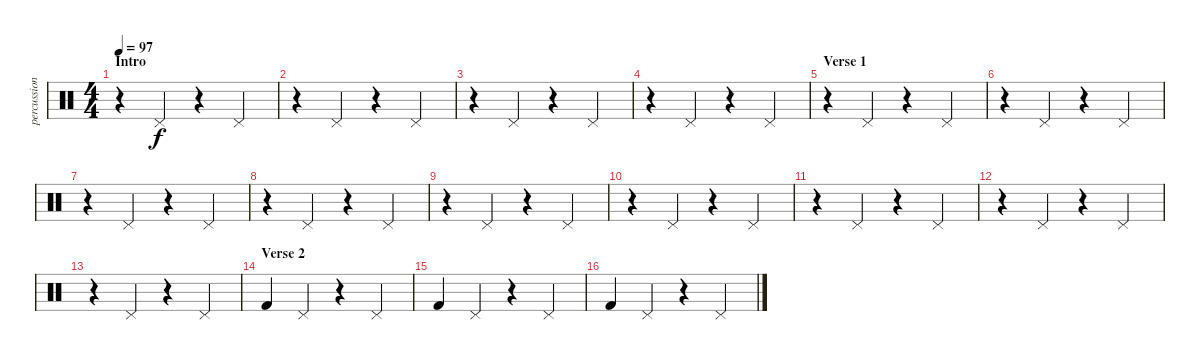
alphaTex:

\track ("percussion - vom" "percussion") {instrument percussion}
\staff {score}
\articulation defaults
\ts (4 4)
\section ("" "Intro")
\tempo 97
\clef neutral
\ks c
r.4{dy f} "Pedal Hi-Hat (hit)".4 r.4 "Pedal Hi-Hat (hit)".4 |
r.4 "Pedal Hi-Hat (hit)".4 r.4 "Pedal Hi-Hat (hit)".4 |
r.4 "Pedal Hi-Hat (hit)".4 r.4 "Pedal Hi-Hat (hit)".4 |
r.4 "Pedal Hi-Hat (hit)".4 r.4 "Pedal Hi-Hat (hit)".4 |
\section ("" "Verse 1")
r.4 "Pedal Hi-Hat (hit)".4 r.4 "Pedal Hi-Hat (hit)".4 |
r.4 "Pedal Hi-Hat (hit)".4 r.4 "Pedal Hi-Hat (hit)".4 |
r.4 "Pedal Hi-Hat (hit)".4 r.4 "Pedal Hi-Hat (hit)".4 |
r.4 "Pedal Hi-Hat (hit)".4 r.4 "Pedal Hi-Hat (hit)".4 |
r.4 "Pedal Hi-Hat (hit)".4 r.4 "Pedal Hi-Hat (hit)".4 |
r.4 "Pedal Hi-Hat (hit)".4 r.4 "Pedal Hi-Hat (hit)".4 |
r.4 "Pedal Hi-Hat (hit)".4 r.4 "Pedal Hi-Hat (hit)".4 |
r.4 "Pedal Hi-Hat (hit)".4 r.4 "Pedal Hi-Hat (hit)".4 |
r.4 "Pedal Hi-Hat (hit)".4 r.4 "Pedal Hi-Hat (hit)".4 |
\section ("" "Verse 2")
"Kick (hit) 2".4 "Pedal Hi-Hat (hit)".4 r.4 "Pedal Hi-Hat (hit)".4 |
"Kick (hit) 2".4 "Pedal Hi-Hat (hit)".4 r.4 "Pedal Hi-Hat (hit)".4 |
"Kick (hit) 2".4 "Pedal Hi-Hat (hit)".4 r.4 "Pedal Hi-Hat (hit)".4
